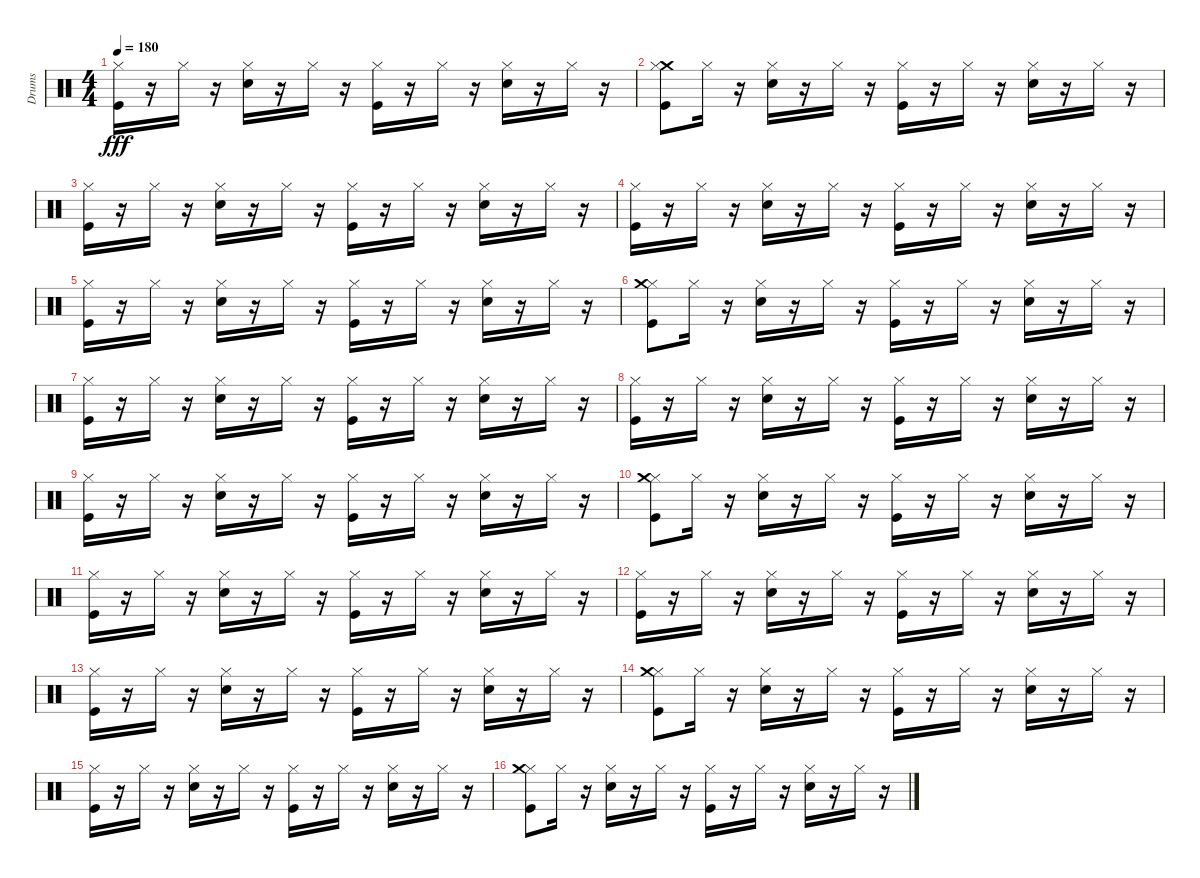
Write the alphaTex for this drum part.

\track ("Drums" "Drums") {instrument percussion}
\staff {score}
\articulation defaults
\ts (4 4)
\tempo 180
\clef neutral
\ks c
("Hi-Hat (closed)" "Kick (hit)").16{dy fff} r.16 "Hi-Hat (closed)".16 r.16 ("Hi-Hat (closed)" "Snare (hit) 2").16 r.16 "Hi-Hat (closed)".16 r.16 ("Hi-Hat (closed)" "Kick (hit)").16 r.16 "Hi-Hat (closed)".16 r.16 ("Hi-Hat (closed)" "Snare (hit) 2").16 r.16 "Hi-Hat (closed)".16 r.16 |
("Crash medium (hit)" "Kick (hit)" "Hi-Hat (closed)").8 "Hi-Hat (closed)".16 r.16 ("Snare (hit) 2" "Hi-Hat (closed)").16 r.16 "Hi-Hat (closed)".16 r.16 ("Kick (hit)" "Hi-Hat (closed)").16 r.16 "Hi-Hat (closed)".16 r.16 ("Snare (hit) 2" "Hi-Hat (closed)").16 r.16 "Hi-Hat (closed)".16 r.16 |
("Hi-Hat (closed)" "Kick (hit)").16 r.16 "Hi-Hat (closed)".16 r.16 ("Hi-Hat (closed)" "Snare (hit) 2").16 r.16 "Hi-Hat (closed)".16 r.16 ("Hi-Hat (closed)" "Kick (hit)").16 r.16 "Hi-Hat (closed)".16 r.16 ("Hi-Hat (closed)" "Snare (hit) 2").16 r.16 "Hi-Hat (closed)".16 r.16 |
("Kick (hit)" "Hi-Hat (closed)").16 r.16 "Hi-Hat (closed)".16 r.16 ("Snare (hit) 2" "Hi-Hat (closed)").16 r.16 "Hi-Hat (closed)".16 r.16 ("Kick (hit)" "Hi-Hat (closed)").16 r.16 "Hi-Hat (closed)".16 r.16 ("Snare (hit) 2" "Hi-Hat (closed)").16 r.16 "Hi-Hat (closed)".16 r.16 |
("Hi-Hat (closed)" "Kick (hit)").16 r.16 "Hi-Hat (closed)".16 r.16 ("Hi-Hat (closed)" "Snare (hit) 2").16 r.16 "Hi-Hat (closed)".16 r.16 ("Hi-Hat (closed)" "Kick (hit)").16 r.16 "Hi-Hat (closed)".16 r.16 ("Hi-Hat (closed)" "Snare (hit) 2").16 r.16 "Hi-Hat (closed)".16 r.16 |
("Kick (hit)" "Hi-Hat (closed)" "Crash medium (hit)").8 "Hi-Hat (closed)".16 r.16 ("Snare (hit) 2" "Hi-Hat (closed)").16 r.16 "Hi-Hat (closed)".16 r.16 ("Kick (hit)" "Hi-Hat (closed)").16 r.16 "Hi-Hat (closed)".16 r.16 ("Snare (hit) 2" "Hi-Hat (closed)").16 r.16 "Hi-Hat (closed)".16 r.16 |
("Hi-Hat (closed)" "Kick (hit)").16 r.16 "Hi-Hat (closed)".16 r.16 ("Hi-Hat (closed)" "Snare (hit) 2").16 r.16 "Hi-Hat (closed)".16 r.16 ("Hi-Hat (closed)" "Kick (hit)").16 r.16 "Hi-Hat (closed)".16 r.16 ("Hi-Hat (closed)" "Snare (hit) 2").16 r.16 "Hi-Hat (closed)".16 r.16 |
("Kick (hit)" "Hi-Hat (closed)").16 r.16 "Hi-Hat (closed)".16 r.16 ("Snare (hit) 2" "Hi-Hat (closed)").16 r.16 "Hi-Hat (closed)".16 r.16 ("Kick (hit)" "Hi-Hat (closed)").16 r.16 "Hi-Hat (closed)".16 r.16 ("Snare (hit) 2" "Hi-Hat (closed)").16 r.16 "Hi-Hat (closed)".16 r.16 |
("Hi-Hat (closed)" "Kick (hit)").16 r.16 "Hi-Hat (closed)".16 r.16 ("Hi-Hat (closed)" "Snare (hit) 2").16 r.16 "Hi-Hat (closed)".16 r.16 ("Hi-Hat (closed)" "Kick (hit)").16 r.16 "Hi-Hat (closed)".16 r.16 ("Hi-Hat (closed)" "Snare (hit) 2").16 r.16 "Hi-Hat (closed)".16 r.16 |
("Kick (hit)" "Hi-Hat (closed)" "Crash medium (hit)").8 "Hi-Hat (closed)".16 r.16 ("Snare (hit) 2" "Hi-Hat (closed)").16 r.16 "Hi-Hat (closed)".16 r.16 ("Kick (hit)" "Hi-Hat (closed)").16 r.16 "Hi-Hat (closed)".16 r.16 ("Snare (hit) 2" "Hi-Hat (closed)").16 r.16 "Hi-Hat (closed)".16 r.16 |
("Hi-Hat (closed)" "Kick (hit)").16 r.16 "Hi-Hat (closed)".16 r.16 ("Hi-Hat (closed)" "Snare (hit) 2").16 r.16 "Hi-Hat (closed)".16 r.16 ("Hi-Hat (closed)" "Kick (hit)").16 r.16 "Hi-Hat (closed)".16 r.16 ("Hi-Hat (closed)" "Snare (hit) 2").16 r.16 "Hi-Hat (closed)".16 r.16 |
("Kick (hit)" "Hi-Hat (closed)").16 r.16 "Hi-Hat (closed)".16 r.16 ("Snare (hit) 2" "Hi-Hat (closed)").16 r.16 "Hi-Hat (closed)".16 r.16 ("Kick (hit)" "Hi-Hat (closed)").16 r.16 "Hi-Hat (closed)".16 r.16 ("Snare (hit) 2" "Hi-Hat (closed)").16 r.16 "Hi-Hat (closed)".16 r.16 |
("Hi-Hat (closed)" "Kick (hit)").16 r.16 "Hi-Hat (closed)".16 r.16 ("Hi-Hat (closed)" "Snare (hit) 2").16 r.16 "Hi-Hat (closed)".16 r.16 ("Hi-Hat (closed)" "Kick (hit)").16 r.16 "Hi-Hat (closed)".16 r.16 ("Hi-Hat (closed)" "Snare (hit) 2").16 r.16 "Hi-Hat (closed)".16 r.16 |
("Kick (hit)" "Hi-Hat (closed)" "Crash medium (hit)").8 "Hi-Hat (closed)".16 r.16 ("Snare (hit) 2" "Hi-Hat (closed)").16 r.16 "Hi-Hat (closed)".16 r.16 ("Kick (hit)" "Hi-Hat (closed)").16 r.16 "Hi-Hat (closed)".16 r.16 ("Snare (hit) 2" "Hi-Hat (closed)").16 r.16 "Hi-Hat (closed)".16 r.16 |
("Hi-Hat (closed)" "Kick (hit)").16 r.16 "Hi-Hat (closed)".16 r.16 ("Hi-Hat (closed)" "Snare (hit) 2").16 r.16 "Hi-Hat (closed)".16 r.16 ("Hi-Hat (closed)" "Kick (hit)").16 r.16 "Hi-Hat (closed)".16 r.16 ("Hi-Hat (closed)" "Snare (hit) 2").16 r.16 "Hi-Hat (closed)".16 r.16 |
("Kick (hit)" "Hi-Hat (closed)" "Crash medium (hit)").8 "Hi-Hat (closed)".16 r.16 ("Snare (hit) 2" "Hi-Hat (closed)").16 r.16 "Hi-Hat (closed)".16 r.16 ("Kick (hit)" "Hi-Hat (closed)").16 r.16 "Hi-Hat (closed)".16 r.16 ("Snare (hit) 2" "Hi-Hat (closed)").16 r.16 "Hi-Hat (closed)".16 r.16
